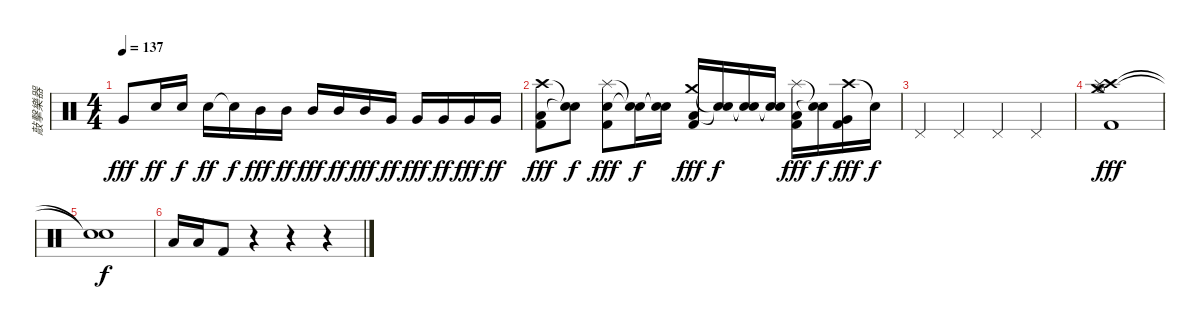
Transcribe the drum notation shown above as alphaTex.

\track ("敲擊樂器" "敲擊樂器") {instrument percussion}
\staff {score}
\articulation defaults
\ts (4 4)
\tempo 137
\clef neutral
\ks c "Very Low Tom (hit)".8{dy fff} "Snare (hit) 2".16{dy ff} "Snare (hit) 2".16{dy f} "Snare (hit) 2".16{dy ff} "Snare (hit)"{t}.16{dy f} "Mid Tom (hit)".16{dy fff} "Mid Tom (hit)".16{dy ff} "Mid Tom (hit)".16{dy fff} "Mid Tom (hit)".16{dy ff} "Mid Tom (hit)".16{dy fff} "Very Low Tom (hit)".16{dy ff} "Very Low Tom (hit)".16{dy fff} "Very Low Tom (hit)".16{dy ff} "Very Low Tom (hit)".16{dy fff} "Very Low Tom (hit)".16{dy ff}
|
("Crash high (hit)" "Low Floor Tom (hit)" "Kick (hit) 2").8{dy fff} ("Snare (hit)"{t} "Snare (hit)"{t}).8{dy f} ("Splash (hit)" "Snare (hit) 2" "Kick (hit) 2").8{dy fff} ("Snare (hit)"{t} "Snare (hit)"{t}).16{dy f} ("Snare (hit)"{t} "Snare (hit)"{t}).16 ("Crash medium (hit)" "Low Tom (hit)" "Kick (hit) 2").16{dy fff} ("Snare (hit)"{t} "Snare (hit)"{t}).16{dy f} ("Snare (hit)"{t} "Snare (hit)"{t}).16 ("Snare (hit)"{t} "Snare (hit)"{t}).16 ("Splash (hit)" "Low Floor Tom (hit)" "Kick (hit) 2").16{dy fff} ("Snare (hit)"{t} "Snare (hit)"{t}).16{dy f} ("Crash high (hit)" "Very Low Tom (hit)" "Kick (hit) 2").16{dy fff} "Snare (hit)"{t}.16{dy f} |
"Pedal Hi-Hat (hit)".4 "Pedal Hi-Hat (hit)".4 "Pedal Hi-Hat (hit)".4 "Pedal Hi-Hat (hit)".4 |
("Crash medium (hit)" "Crash high (hit)" "Splash (hit)" "Hi-Hat (open)" "Kick (hit) 2").1{dy fff} |
("Snare (hit)"{t} "Snare (hit)"{t}).1{dy f} |
"Low Tom (hit)".16 "Low Tom (hit)".16 "Kick (hit) 2".8 r.4 r.4 r.4
